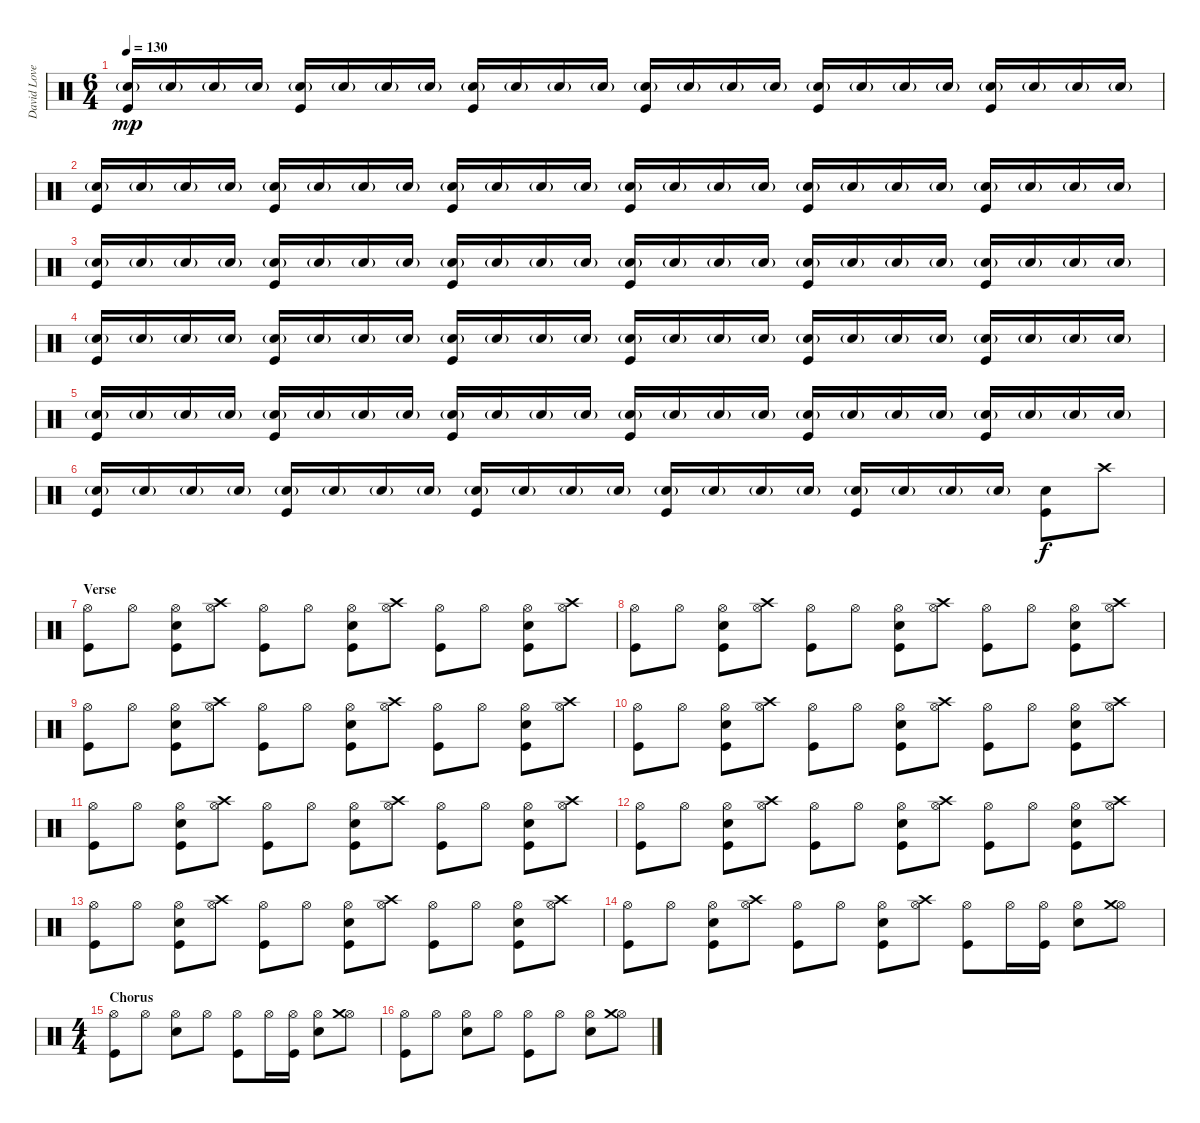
\track ("David Lovering" "David Love") {instrument percussion}
\staff {score}
\articulation defaults
\ts (6 4)
\tempo 130
\clef neutral
\ks c
("Snare (hit) 2"{g} "Kick (hit)").16{dy mp} "Snare (hit) 2"{g}.16 "Snare (hit) 2"{g}.16 "Snare (hit) 2"{g}.16 ("Snare (hit) 2"{g} "Kick (hit)").16 "Snare (hit) 2"{g}.16 "Snare (hit) 2"{g}.16 "Snare (hit) 2"{g}.16 ("Snare (hit) 2"{g} "Kick (hit)").16 "Snare (hit) 2"{g}.16 "Snare (hit) 2"{g}.16 "Snare (hit) 2"{g}.16 ("Snare (hit) 2"{g} "Kick (hit)").16 "Snare (hit) 2"{g}.16 "Snare (hit) 2"{g}.16 "Snare (hit) 2"{g}.16 ("Snare (hit) 2"{g} "Kick (hit)").16 "Snare (hit) 2"{g}.16 "Snare (hit) 2"{g}.16 "Snare (hit) 2"{g}.16 ("Snare (hit) 2"{g} "Kick (hit)").16 "Snare (hit) 2"{g}.16 "Snare (hit) 2"{g}.16 "Snare (hit) 2"{g}.16 |
("Snare (hit) 2"{g} "Kick (hit)").16 "Snare (hit) 2"{g}.16 "Snare (hit) 2"{g}.16 "Snare (hit) 2"{g}.16 ("Snare (hit) 2"{g} "Kick (hit)").16 "Snare (hit) 2"{g}.16 "Snare (hit) 2"{g}.16 "Snare (hit) 2"{g}.16 ("Snare (hit) 2"{g} "Kick (hit)").16 "Snare (hit) 2"{g}.16 "Snare (hit) 2"{g}.16 "Snare (hit) 2"{g}.16 ("Snare (hit) 2"{g} "Kick (hit)").16 "Snare (hit) 2"{g}.16 "Snare (hit) 2"{g}.16 "Snare (hit) 2"{g}.16 ("Snare (hit) 2"{g} "Kick (hit)").16 "Snare (hit) 2"{g}.16 "Snare (hit) 2"{g}.16 "Snare (hit) 2"{g}.16 ("Snare (hit) 2"{g} "Kick (hit)").16 "Snare (hit) 2"{g}.16 "Snare (hit) 2"{g}.16 "Snare (hit) 2"{g}.16 |
("Snare (hit) 2"{g} "Kick (hit)").16 "Snare (hit) 2"{g}.16 "Snare (hit) 2"{g}.16 "Snare (hit) 2"{g}.16 ("Snare (hit) 2"{g} "Kick (hit)").16 "Snare (hit) 2"{g}.16 "Snare (hit) 2"{g}.16 "Snare (hit) 2"{g}.16 ("Snare (hit) 2"{g} "Kick (hit)").16 "Snare (hit) 2"{g}.16 "Snare (hit) 2"{g}.16 "Snare (hit) 2"{g}.16 ("Snare (hit) 2"{g} "Kick (hit)").16 "Snare (hit) 2"{g}.16 "Snare (hit) 2"{g}.16 "Snare (hit) 2"{g}.16 ("Snare (hit) 2"{g} "Kick (hit)").16 "Snare (hit) 2"{g}.16 "Snare (hit) 2"{g}.16 "Snare (hit) 2"{g}.16 ("Snare (hit) 2"{g} "Kick (hit)").16 "Snare (hit) 2"{g}.16 "Snare (hit) 2"{g}.16 "Snare (hit) 2"{g}.16 |
("Snare (hit) 2"{g} "Kick (hit)").16 "Snare (hit) 2"{g}.16 "Snare (hit) 2"{g}.16 "Snare (hit) 2"{g}.16 ("Snare (hit) 2"{g} "Kick (hit)").16 "Snare (hit) 2"{g}.16 "Snare (hit) 2"{g}.16 "Snare (hit) 2"{g}.16 ("Snare (hit) 2"{g} "Kick (hit)").16 "Snare (hit) 2"{g}.16 "Snare (hit) 2"{g}.16 "Snare (hit) 2"{g}.16 ("Snare (hit) 2"{g} "Kick (hit)").16 "Snare (hit) 2"{g}.16 "Snare (hit) 2"{g}.16 "Snare (hit) 2"{g}.16 ("Snare (hit) 2"{g} "Kick (hit)").16 "Snare (hit) 2"{g}.16 "Snare (hit) 2"{g}.16 "Snare (hit) 2"{g}.16 ("Snare (hit) 2"{g} "Kick (hit)").16 "Snare (hit) 2"{g}.16 "Snare (hit) 2"{g}.16 "Snare (hit) 2"{g}.16 |
("Snare (hit) 2"{g} "Kick (hit)").16 "Snare (hit) 2"{g}.16 "Snare (hit) 2"{g}.16 "Snare (hit) 2"{g}.16 ("Snare (hit) 2"{g} "Kick (hit)").16 "Snare (hit) 2"{g}.16 "Snare (hit) 2"{g}.16 "Snare (hit) 2"{g}.16 ("Snare (hit) 2"{g} "Kick (hit)").16 "Snare (hit) 2"{g}.16 "Snare (hit) 2"{g}.16 "Snare (hit) 2"{g}.16 ("Snare (hit) 2"{g} "Kick (hit)").16 "Snare (hit) 2"{g}.16 "Snare (hit) 2"{g}.16 "Snare (hit) 2"{g}.16 ("Snare (hit) 2"{g} "Kick (hit)").16 "Snare (hit) 2"{g}.16 "Snare (hit) 2"{g}.16 "Snare (hit) 2"{g}.16 ("Snare (hit) 2"{g} "Kick (hit)").16 "Snare (hit) 2"{g}.16 "Snare (hit) 2"{g}.16 "Snare (hit) 2"{g}.16 |
("Snare (hit) 2"{g} "Kick (hit)").16 "Snare (hit) 2"{g}.16 "Snare (hit) 2"{g}.16 "Snare (hit) 2"{g}.16 ("Snare (hit) 2"{g} "Kick (hit)").16 "Snare (hit) 2"{g}.16 "Snare (hit) 2"{g}.16 "Snare (hit) 2"{g}.16 ("Snare (hit) 2"{g} "Kick (hit)").16 "Snare (hit) 2"{g}.16 "Snare (hit) 2"{g}.16 "Snare (hit) 2"{g}.16 ("Snare (hit) 2"{g} "Kick (hit)").16 "Snare (hit) 2"{g}.16 "Snare (hit) 2"{g}.16 "Snare (hit) 2"{g}.16 ("Snare (hit) 2"{g} "Kick (hit)").16 "Snare (hit) 2"{g}.16 "Snare (hit) 2"{g}.16 "Snare (hit) 2"{g}.16 ("Snare (hit) 2" "Kick (hit)").8{dy f} "Crash high (hit)".8 |
\section ("" "Verse")
("Hi-Hat (open)" "Kick (hit)").8 "Hi-Hat (open)".8 ("Hi-Hat (open)" "Snare (hit) 2" "Kick (hit)").8 ("Hi-Hat (open)" "Crash high (hit)").8 ("Hi-Hat (open)" "Kick (hit)").8 "Hi-Hat (open)".8 ("Hi-Hat (open)" "Snare (hit) 2" "Kick (hit)").8 ("Hi-Hat (open)" "Crash high (hit)").8 ("Hi-Hat (open)" "Kick (hit)").8 "Hi-Hat (open)".8 ("Hi-Hat (open)" "Snare (hit) 2" "Kick (hit)").8 ("Hi-Hat (open)" "Crash high (hit)").8 |
("Hi-Hat (open)" "Kick (hit)").8 "Hi-Hat (open)".8 ("Hi-Hat (open)" "Snare (hit) 2" "Kick (hit)").8 ("Hi-Hat (open)" "Crash high (hit)").8 ("Hi-Hat (open)" "Kick (hit)").8 "Hi-Hat (open)".8 ("Hi-Hat (open)" "Snare (hit) 2" "Kick (hit)").8 ("Hi-Hat (open)" "Crash high (hit)").8 ("Hi-Hat (open)" "Kick (hit)").8 "Hi-Hat (open)".8 ("Hi-Hat (open)" "Snare (hit) 2" "Kick (hit)").8 ("Hi-Hat (open)" "Crash high (hit)").8 |
("Hi-Hat (open)" "Kick (hit)").8 "Hi-Hat (open)".8 ("Hi-Hat (open)" "Snare (hit) 2" "Kick (hit)").8 ("Hi-Hat (open)" "Crash high (hit)").8 ("Hi-Hat (open)" "Kick (hit)").8 "Hi-Hat (open)".8 ("Hi-Hat (open)" "Snare (hit) 2" "Kick (hit)").8 ("Hi-Hat (open)" "Crash high (hit)").8 ("Hi-Hat (open)" "Kick (hit)").8 "Hi-Hat (open)".8 ("Hi-Hat (open)" "Snare (hit) 2" "Kick (hit)").8 ("Hi-Hat (open)" "Crash high (hit)").8 |
("Hi-Hat (open)" "Kick (hit)").8 "Hi-Hat (open)".8 ("Hi-Hat (open)" "Snare (hit) 2" "Kick (hit)").8 ("Hi-Hat (open)" "Crash high (hit)").8 ("Hi-Hat (open)" "Kick (hit)").8 "Hi-Hat (open)".8 ("Hi-Hat (open)" "Snare (hit) 2" "Kick (hit)").8 ("Hi-Hat (open)" "Crash high (hit)").8 ("Hi-Hat (open)" "Kick (hit)").8 "Hi-Hat (open)".8 ("Hi-Hat (open)" "Snare (hit) 2" "Kick (hit)").8 ("Hi-Hat (open)" "Crash high (hit)").8 |
("Hi-Hat (open)" "Kick (hit)").8 "Hi-Hat (open)".8 ("Hi-Hat (open)" "Snare (hit) 2" "Kick (hit)").8 ("Hi-Hat (open)" "Crash high (hit)").8 ("Hi-Hat (open)" "Kick (hit)").8 "Hi-Hat (open)".8 ("Hi-Hat (open)" "Snare (hit) 2" "Kick (hit)").8 ("Hi-Hat (open)" "Crash high (hit)").8 ("Hi-Hat (open)" "Kick (hit)").8 "Hi-Hat (open)".8 ("Hi-Hat (open)" "Snare (hit) 2" "Kick (hit)").8 ("Hi-Hat (open)" "Crash high (hit)").8 |
("Hi-Hat (open)" "Kick (hit)").8 "Hi-Hat (open)".8 ("Hi-Hat (open)" "Snare (hit) 2" "Kick (hit)").8 ("Hi-Hat (open)" "Crash high (hit)").8 ("Hi-Hat (open)" "Kick (hit)").8 "Hi-Hat (open)".8 ("Hi-Hat (open)" "Snare (hit) 2" "Kick (hit)").8 ("Hi-Hat (open)" "Crash high (hit)").8 ("Hi-Hat (open)" "Kick (hit)").8 "Hi-Hat (open)".8 ("Hi-Hat (open)" "Snare (hit) 2" "Kick (hit)").8 ("Hi-Hat (open)" "Crash high (hit)").8 |
("Hi-Hat (open)" "Kick (hit)").8 "Hi-Hat (open)".8 ("Hi-Hat (open)" "Snare (hit) 2" "Kick (hit)").8 ("Hi-Hat (open)" "Crash high (hit)").8 ("Hi-Hat (open)" "Kick (hit)").8 "Hi-Hat (open)".8 ("Hi-Hat (open)" "Snare (hit) 2" "Kick (hit)").8 ("Hi-Hat (open)" "Crash high (hit)").8 ("Hi-Hat (open)" "Kick (hit)").8 "Hi-Hat (open)".8 ("Hi-Hat (open)" "Snare (hit) 2" "Kick (hit)").8 ("Hi-Hat (open)" "Crash high (hit)").8 |
("Hi-Hat (open)" "Kick (hit)").8 "Hi-Hat (open)".8 ("Hi-Hat (open)" "Snare (hit) 2" "Kick (hit)").8 ("Hi-Hat (open)" "Crash high (hit)").8 ("Hi-Hat (open)" "Kick (hit)").8 "Hi-Hat (open)".8 ("Hi-Hat (open)" "Snare (hit) 2" "Kick (hit)").8 ("Hi-Hat (open)" "Crash high (hit)").8 ("Hi-Hat (open)" "Kick (hit)").8 "Hi-Hat (open)".16 ("Hi-Hat (open)" "Kick (hit)").16 ("Hi-Hat (open)" "Snare (hit) 2").8 ("Hi-Hat (open)" "Crash medium (hit)").8 |
\ts (4 4)
\section ("" "Chorus")
("Hi-Hat (open)" "Kick (hit)").8 "Hi-Hat (open)".8 ("Hi-Hat (open)" "Snare (hit) 2").8 "Hi-Hat (open)".8 ("Hi-Hat (open)" "Kick (hit)").8 "Hi-Hat (open)".16 ("Hi-Hat (open)" "Kick (hit)").16 ("Hi-Hat (open)" "Snare (hit) 2").8 ("Hi-Hat (open)" "Crash medium (hit)").8 |
("Hi-Hat (open)" "Kick (hit)").8 "Hi-Hat (open)".8 ("Hi-Hat (open)" "Snare (hit) 2").8 "Hi-Hat (open)".8 ("Hi-Hat (open)" "Kick (hit)").8 "Hi-Hat (open)".8 ("Hi-Hat (open)" "Snare (hit) 2").8 ("Hi-Hat (open)" "Crash medium (hit)").8
